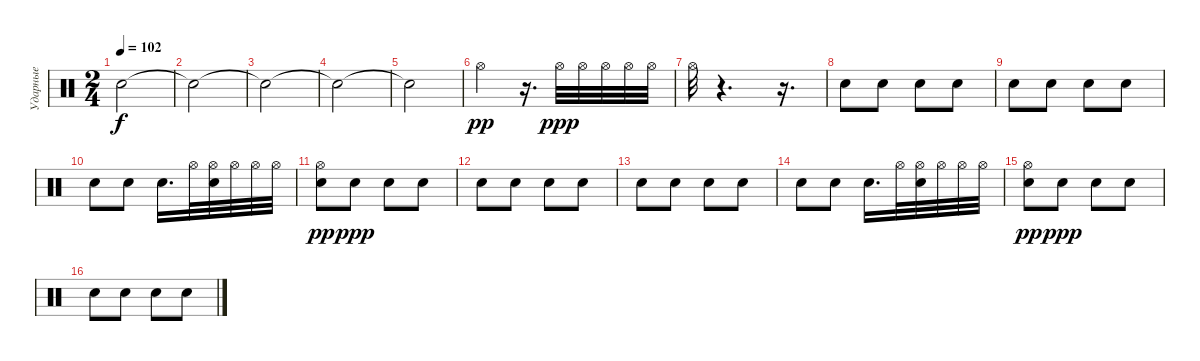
\track ("Ударные" "Ударные") {instrument percussion}
\staff {score}
\articulation defaults
\ts (2 4)
\tempo 102
\clef neutral
\ks c "Snare (hit)"{t}.2{dy f}
|
"Snare (hit)"{t}.2 |
"Snare (hit)"{t}.2 |
"Snare (hit)"{t}.2 |
"Snare (hit)"{t}.2 |
"Hi-Hat (open)".4{dy pp} r.16{d} "Hi-Hat (open)".32{dy ppp} "Hi-Hat (open)".32 "Hi-Hat (open)".32 "Hi-Hat (open)".32 "Hi-Hat (open)".32 |
"Hi-Hat (open)".32 r.4{d} r.16{d} |
"Hand Clap (hit)".8 "Hand Clap (hit)".8 "Hand Clap (hit)".8 "Hand Clap (hit)".8 |
"Hand Clap (hit)".8 "Hand Clap (hit)".8 "Hand Clap (hit)".8 "Hand Clap (hit)".8 |
"Hand Clap (hit)".8 "Hand Clap (hit)".8 "Hand Clap (hit)".16{d} "Hi-Hat (open)".32 ("Hand Clap (hit)" "Hi-Hat (open)").32 "Hi-Hat (open)".32 "Hi-Hat (open)".32 "Hi-Hat (open)".32 |
("Hand Clap (hit)" "Hi-Hat (open)").8{dy pp} "Hand Clap (hit)".8{dy ppp} "Hand Clap (hit)".8 "Hand Clap (hit)".8 |
"Hand Clap (hit)".8 "Hand Clap (hit)".8 "Hand Clap (hit)".8 "Hand Clap (hit)".8 |
"Hand Clap (hit)".8 "Hand Clap (hit)".8 "Hand Clap (hit)".8 "Hand Clap (hit)".8 |
"Hand Clap (hit)".8 "Hand Clap (hit)".8 "Hand Clap (hit)".16{d} "Hi-Hat (open)".32 ("Hand Clap (hit)" "Hi-Hat (open)").32 "Hi-Hat (open)".32 "Hi-Hat (open)".32 "Hi-Hat (open)".32 |
("Hand Clap (hit)" "Hi-Hat (open)").8{dy pp} "Hand Clap (hit)".8{dy ppp} "Hand Clap (hit)".8 "Hand Clap (hit)".8 |
"Hand Clap (hit)".8 "Hand Clap (hit)".8 "Hand Clap (hit)".8 "Hand Clap (hit)".8
